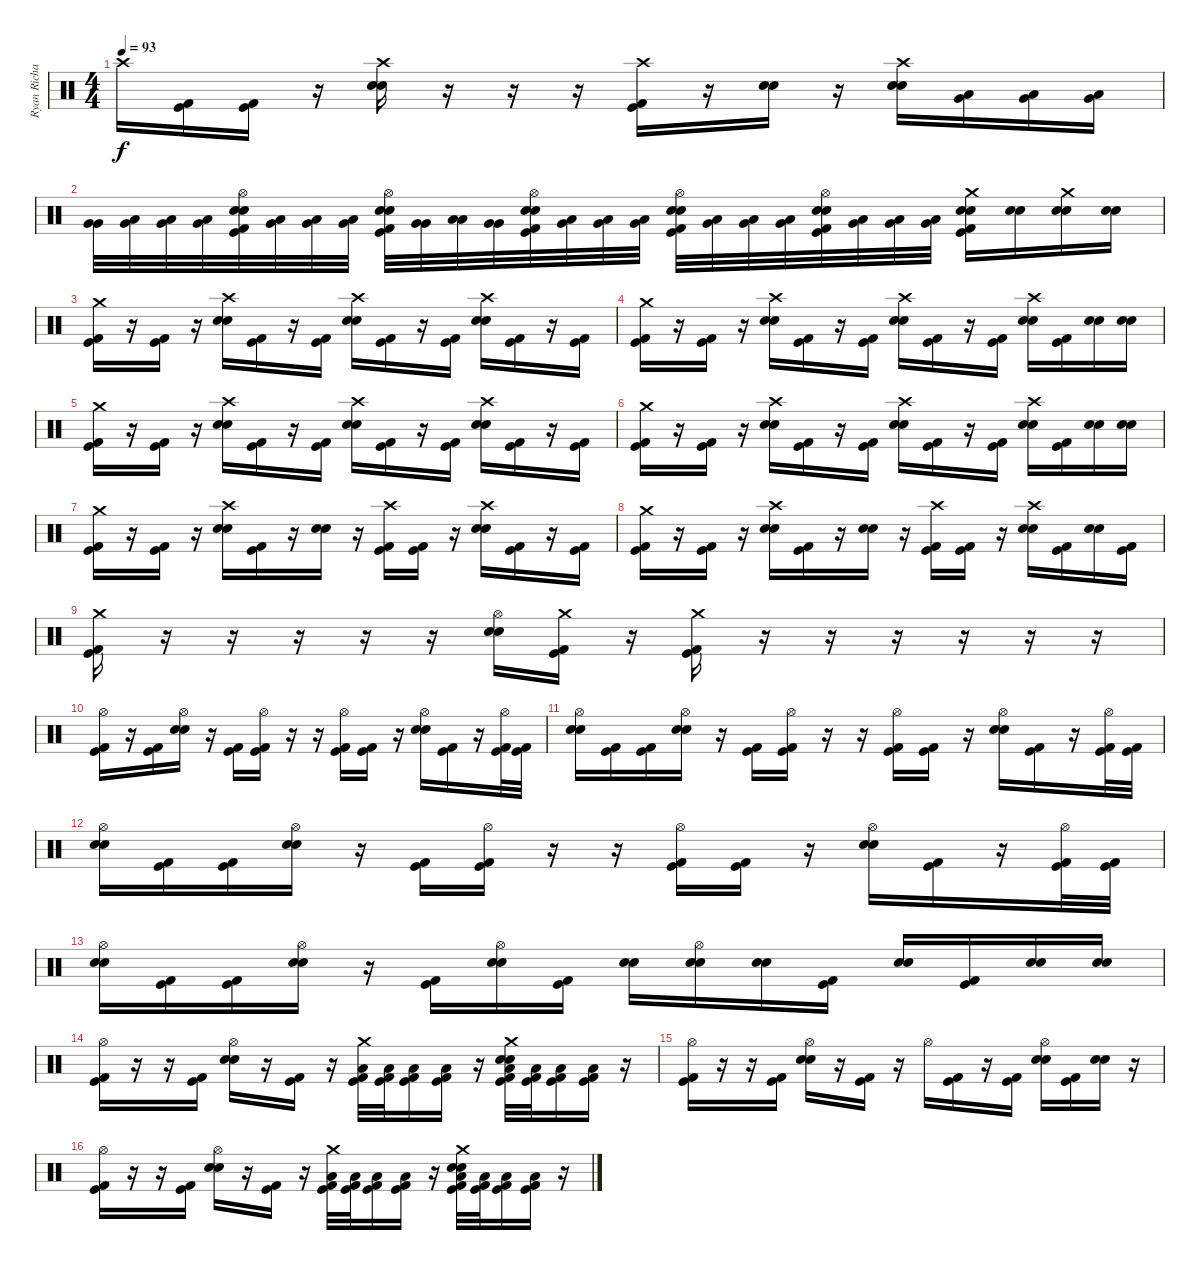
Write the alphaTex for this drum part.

\track ("Ryan Richards" "Ryan Richa") {instrument percussion}
\staff {score}
\articulation defaults
\ts (4 4)
\tempo 93
\clef neutral
\ks c "Crash high (hit)".16{dy f}
("Kick (hit)" "Kick (hit) 2").16 ("Kick (hit)" "Kick (hit) 2").16 r.16 ("Snare (hit) 2" "Crash high (hit)" "Electric Snare (hit)").16 r.16 r.16 r.16 ("Kick (hit)" "Crash high (hit)" "Kick (hit) 2").16 r.16 ("Snare (hit) 2" "Electric Snare (hit)").16 r.16 ("Snare (hit) 2" "Crash high (hit)" "Electric Snare (hit)").16 ("Very Low Tom (hit)" "Low Floor Tom (hit)").16 ("Low Tom (hit)" "Very Low Tom (hit)").16 ("Very Low Tom (hit)" "Low Floor Tom (hit)").16 |
("Very Low Tom (hit)" "Very Low Tom (hit)").32 ("Very Low Tom (hit)" "Low Floor Tom (hit)").32 ("Low Tom (hit)" "Very Low Tom (hit)").32 ("Very Low Tom (hit)" "Low Floor Tom (hit)").32 ("Kick (hit)" "Snare (hit) 2" "Hi-Hat (open)" "Electric Snare (hit)" "Kick (hit) 2").32 ("Very Low Tom (hit)" "Low Floor Tom (hit)").32 ("Low Tom (hit)" "Very Low Tom (hit)").32 ("Very Low Tom (hit)" "Low Floor Tom (hit)").32 ("Kick (hit)" "Snare (hit) 2" "Hi-Hat (open)" "Electric Snare (hit)" "Kick (hit) 2").32 ("Very Low Tom (hit)" "Very Low Tom (hit)").32 ("Low Tom (hit)" "Low Floor Tom (hit)").32 ("Very Low Tom (hit)" "Very Low Tom (hit)").32 ("Kick (hit)" "Snare (hit) 2" "Hi-Hat (open)" "Electric Snare (hit)" "Kick (hit) 2").32 ("Very Low Tom (hit)" "Low Floor Tom (hit)").32 ("Low Tom (hit)" "Very Low Tom (hit)").32 ("Very Low Tom (hit)" "Low Floor Tom (hit)").32 ("Kick (hit)" "Snare (hit) 2" "Hi-Hat (open)" "Electric Snare (hit)" "Kick (hit) 2").32 ("Very Low Tom (hit)" "Low Floor Tom (hit)").32 ("Low Tom (hit)" "Very Low Tom (hit)").32 ("Very Low Tom (hit)" "Low Floor Tom (hit)").32 ("Kick (hit)" "Snare (hit) 2" "Hi-Hat (open)" "Electric Snare (hit)" "Kick (hit) 2").32 ("Very Low Tom (hit)" "Low Floor Tom (hit)").32 ("Low Tom (hit)" "Very Low Tom (hit)").32 ("Very Low Tom (hit)" "Low Floor Tom (hit)").32 ("Kick (hit)" "Snare (hit) 2" "Crash medium (hit)" "Electric Snare (hit)" "Kick (hit) 2").16 ("Snare (hit) 2" "Electric Snare (hit)").16 ("Snare (hit) 2" "Crash medium (hit)" "Electric Snare (hit)").16 ("Snare (hit) 2" "Electric Snare (hit)").16 |
("Kick (hit)" "Crash medium (hit)" "Kick (hit) 2").16 r.16 ("Kick (hit)" "Kick (hit) 2").16 r.16 ("Snare (hit) 2" "Crash high (hit)" "Electric Snare (hit)").16 ("Kick (hit)" "Kick (hit) 2").16 r.16 ("Kick (hit)" "Kick (hit) 2").16 ("Snare (hit) 2" "Crash high (hit)" "Electric Snare (hit)").16 ("Kick (hit)" "Kick (hit) 2").16 r.16 ("Kick (hit)" "Kick (hit) 2").16 ("Snare (hit) 2" "Crash high (hit)" "Electric Snare (hit)").16 ("Kick (hit)" "Kick (hit) 2").16 r.16 ("Kick (hit)" "Kick (hit) 2").16 |
("Kick (hit)" "Crash medium (hit)" "Kick (hit) 2").16 r.16 ("Kick (hit)" "Kick (hit) 2").16 r.16 ("Snare (hit) 2" "Crash high (hit)" "Electric Snare (hit)").16 ("Kick (hit)" "Kick (hit) 2").16 r.16 ("Kick (hit)" "Kick (hit) 2").16 ("Snare (hit) 2" "Crash high (hit)" "Electric Snare (hit)").16 ("Kick (hit)" "Kick (hit) 2").16 r.16 ("Kick (hit)" "Kick (hit) 2").16 ("Snare (hit) 2" "Crash high (hit)" "Electric Snare (hit)").16 ("Kick (hit)" "Kick (hit) 2").16 ("Snare (hit) 2" "Electric Snare (hit)").16 ("Snare (hit) 2" "Electric Snare (hit)").16 |
("Kick (hit)" "Crash medium (hit)" "Kick (hit) 2").16 r.16 ("Kick (hit)" "Kick (hit) 2").16 r.16 ("Snare (hit) 2" "Crash high (hit)" "Electric Snare (hit)").16 ("Kick (hit)" "Kick (hit) 2").16 r.16 ("Kick (hit)" "Kick (hit) 2").16 ("Snare (hit) 2" "Crash high (hit)" "Electric Snare (hit)").16 ("Kick (hit)" "Kick (hit) 2").16 r.16 ("Kick (hit)" "Kick (hit) 2").16 ("Snare (hit) 2" "Crash high (hit)" "Electric Snare (hit)").16 ("Kick (hit)" "Kick (hit) 2").16 r.16 ("Kick (hit)" "Kick (hit) 2").16 |
("Kick (hit)" "Crash medium (hit)" "Kick (hit) 2").16 r.16 ("Kick (hit)" "Kick (hit) 2").16 r.16 ("Snare (hit) 2" "Crash high (hit)" "Electric Snare (hit)").16 ("Kick (hit)" "Kick (hit) 2").16 r.16 ("Kick (hit)" "Kick (hit) 2").16 ("Snare (hit) 2" "Crash high (hit)" "Electric Snare (hit)").16 ("Kick (hit)" "Kick (hit) 2").16 r.16 ("Kick (hit)" "Kick (hit) 2").16 ("Snare (hit) 2" "Crash high (hit)" "Electric Snare (hit)").16 ("Kick (hit)" "Kick (hit) 2").16 ("Snare (hit) 2" "Electric Snare (hit)").16 ("Snare (hit) 2" "Electric Snare (hit)").16 |
("Kick (hit)" "Crash medium (hit)" "Kick (hit) 2").16 r.16 ("Kick (hit)" "Kick (hit) 2").16 r.16 ("Snare (hit) 2" "Crash high (hit)" "Electric Snare (hit)").16 ("Kick (hit)" "Kick (hit) 2").16 r.16 ("Snare (hit) 2" "Electric Snare (hit)").16 r.16 ("Kick (hit)" "Crash high (hit)" "Kick (hit) 2").16 ("Kick (hit)" "Kick (hit) 2").16 r.16 ("Snare (hit) 2" "Crash high (hit)" "Electric Snare (hit)").16 ("Kick (hit)" "Kick (hit) 2").16 r.16 ("Kick (hit)" "Kick (hit) 2").16 |
("Kick (hit)" "Crash medium (hit)" "Kick (hit) 2").16 r.16 ("Kick (hit)" "Kick (hit) 2").16 r.16 ("Snare (hit) 2" "Crash high (hit)" "Electric Snare (hit)").16 ("Kick (hit)" "Kick (hit) 2").16 r.16 ("Snare (hit) 2" "Electric Snare (hit)").16 r.16 ("Kick (hit)" "Crash high (hit)" "Kick (hit) 2").16 ("Kick (hit)" "Kick (hit) 2").16 r.16 ("Snare (hit) 2" "Crash high (hit)" "Electric Snare (hit)").16 ("Kick (hit)" "Kick (hit) 2").16 ("Snare (hit) 2" "Electric Snare (hit)").16 ("Kick (hit)" "Kick (hit) 2").16 |
("Kick (hit)" "Crash medium (hit)" "Kick (hit) 2").16 r.16 r.16 r.16 r.16 r.16 ("Snare (hit) 2" "Hi-Hat (open)" "Electric Snare (hit)").16 ("Kick (hit)" "Crash medium (hit)" "Kick (hit) 2").16 r.16 ("Kick (hit)" "Crash medium (hit)" "Kick (hit) 2").16 r.16 r.16 r.16 r.16 r.16 r.16 |
("Kick (hit)" "Hi-Hat (open)" "Kick (hit) 2").16 r.16 ("Kick (hit)" "Kick (hit) 2").16 ("Snare (hit) 2" "Hi-Hat (open)" "Electric Snare (hit)").16 r.16 ("Kick (hit)" "Kick (hit) 2").16 ("Kick (hit)" "Hi-Hat (open)" "Kick (hit) 2").16 r.16 r.16 ("Kick (hit)" "Hi-Hat (open)" "Kick (hit) 2").16 ("Kick (hit)" "Kick (hit) 2").16 r.16 ("Snare (hit) 2" "Hi-Hat (open)" "Electric Snare (hit)").16 ("Kick (hit)" "Kick (hit) 2").16 r.16 ("Kick (hit)" "Hi-Hat (open)" "Kick (hit) 2").32 ("Kick (hit)" "Kick (hit) 2").32 |
("Snare (hit) 2" "Hi-Hat (open)" "Electric Snare (hit)").16 ("Kick (hit)" "Kick (hit) 2").16 ("Kick (hit)" "Kick (hit) 2").16 ("Snare (hit) 2" "Hi-Hat (open)" "Electric Snare (hit)").16 r.16 ("Kick (hit)" "Kick (hit) 2").16 ("Kick (hit)" "Hi-Hat (open)" "Kick (hit) 2").16 r.16 r.16 ("Kick (hit)" "Hi-Hat (open)" "Kick (hit) 2").16 ("Kick (hit)" "Kick (hit) 2").16 r.16 ("Snare (hit) 2" "Hi-Hat (open)" "Electric Snare (hit)").16 ("Kick (hit)" "Kick (hit) 2").16 r.16 ("Kick (hit)" "Hi-Hat (open)" "Kick (hit) 2").32 ("Kick (hit)" "Kick (hit) 2").32 |
("Snare (hit) 2" "Hi-Hat (open)" "Electric Snare (hit)").16 ("Kick (hit)" "Kick (hit) 2").16 ("Kick (hit)" "Kick (hit) 2").16 ("Snare (hit) 2" "Hi-Hat (open)" "Electric Snare (hit)").16 r.16 ("Kick (hit)" "Kick (hit) 2").16 ("Kick (hit)" "Hi-Hat (open)" "Kick (hit) 2").16 r.16 r.16 ("Kick (hit)" "Hi-Hat (open)" "Kick (hit) 2").16 ("Kick (hit)" "Kick (hit) 2").16 r.16 ("Snare (hit) 2" "Hi-Hat (open)" "Electric Snare (hit)").16 ("Kick (hit)" "Kick (hit) 2").16 r.16 ("Kick (hit)" "Hi-Hat (open)" "Kick (hit) 2").32 ("Kick (hit)" "Kick (hit) 2").32 |
("Snare (hit) 2" "Hi-Hat (open)" "Electric Snare (hit)").16 ("Kick (hit)" "Kick (hit) 2").16 ("Kick (hit)" "Kick (hit) 2").16 ("Snare (hit) 2" "Hi-Hat (open)" "Electric Snare (hit)").16 r.16 ("Kick (hit)" "Kick (hit) 2").16 ("Snare (hit) 2" "Hi-Hat (open)" "Electric Snare (hit)").16 ("Kick (hit)" "Kick (hit) 2").16 ("Snare (hit) 2" "Electric Snare (hit)").16 ("Snare (hit) 2" "Hi-Hat (open)" "Electric Snare (hit)").16 ("Snare (hit) 2" "Electric Snare (hit)").16 ("Kick (hit)" "Kick (hit) 2").16 ("Snare (hit) 2" "Electric Snare (hit)").16 ("Kick (hit)" "Kick (hit) 2").16 ("Snare (hit) 2" "Electric Snare (hit)").16 ("Snare (hit) 2" "Electric Snare (hit)").16 |
("Kick (hit)" "Hi-Hat (open)" "Kick (hit) 2").16 r.16 r.16 ("Kick (hit)" "Kick (hit) 2").16 ("Snare (hit) 2" "Hi-Hat (open)" "Electric Snare (hit)").16 r.16 ("Kick (hit)" "Kick (hit) 2").16 r.16 ("Kick (hit)" "Crash medium (hit)" "Low Floor Tom (hit)" "Kick (hit) 2").32 ("Kick (hit)" "Low Floor Tom (hit)" "Kick (hit) 2").32 ("Kick (hit)" "Low Floor Tom (hit)" "Kick (hit) 2").16 ("Kick (hit)" "Low Floor Tom (hit)" "Kick (hit) 2").16 r.16 ("Kick (hit)" "Snare (hit) 2" "Crash medium (hit)" "Low Floor Tom (hit)" "Electric Snare (hit)" "Kick (hit) 2").32 ("Kick (hit)" "Low Floor Tom (hit)" "Kick (hit) 2").32 ("Kick (hit)" "Low Floor Tom (hit)" "Kick (hit) 2").16 ("Kick (hit)" "Low Floor Tom (hit)" "Kick (hit) 2").16 r.16 |
("Kick (hit)" "Hi-Hat (open)" "Kick (hit) 2").16 r.16 r.16 ("Kick (hit)" "Kick (hit) 2").16 ("Snare (hit) 2" "Hi-Hat (open)" "Electric Snare (hit)").16 r.16 ("Kick (hit)" "Kick (hit) 2").16 r.16 "Hi-Hat (open)".16 ("Kick (hit)" "Kick (hit) 2").16 r.16 ("Kick (hit)" "Kick (hit) 2").16 ("Snare (hit) 2" "Hi-Hat (open)" "Electric Snare (hit)").16 ("Kick (hit)" "Kick (hit) 2").16 ("Snare (hit) 2" "Electric Snare (hit)").16 r.16 |
("Kick (hit)" "Hi-Hat (open)" "Kick (hit) 2").16 r.16 r.16 ("Kick (hit)" "Kick (hit) 2").16 ("Snare (hit) 2" "Hi-Hat (open)" "Electric Snare (hit)").16 r.16 ("Kick (hit)" "Kick (hit) 2").16 r.16 ("Kick (hit)" "Crash medium (hit)" "Low Floor Tom (hit)" "Kick (hit) 2").32 ("Kick (hit)" "Low Floor Tom (hit)" "Kick (hit) 2").32 ("Kick (hit)" "Low Floor Tom (hit)" "Kick (hit) 2").16 ("Kick (hit)" "Low Floor Tom (hit)" "Kick (hit) 2").16 r.16 ("Kick (hit)" "Snare (hit) 2" "Crash medium (hit)" "Low Floor Tom (hit)" "Electric Snare (hit)" "Kick (hit) 2").32 ("Kick (hit)" "Low Floor Tom (hit)" "Kick (hit) 2").32 ("Kick (hit)" "Low Floor Tom (hit)" "Kick (hit) 2").16 ("Kick (hit)" "Low Floor Tom (hit)" "Kick (hit) 2").16 r.16
